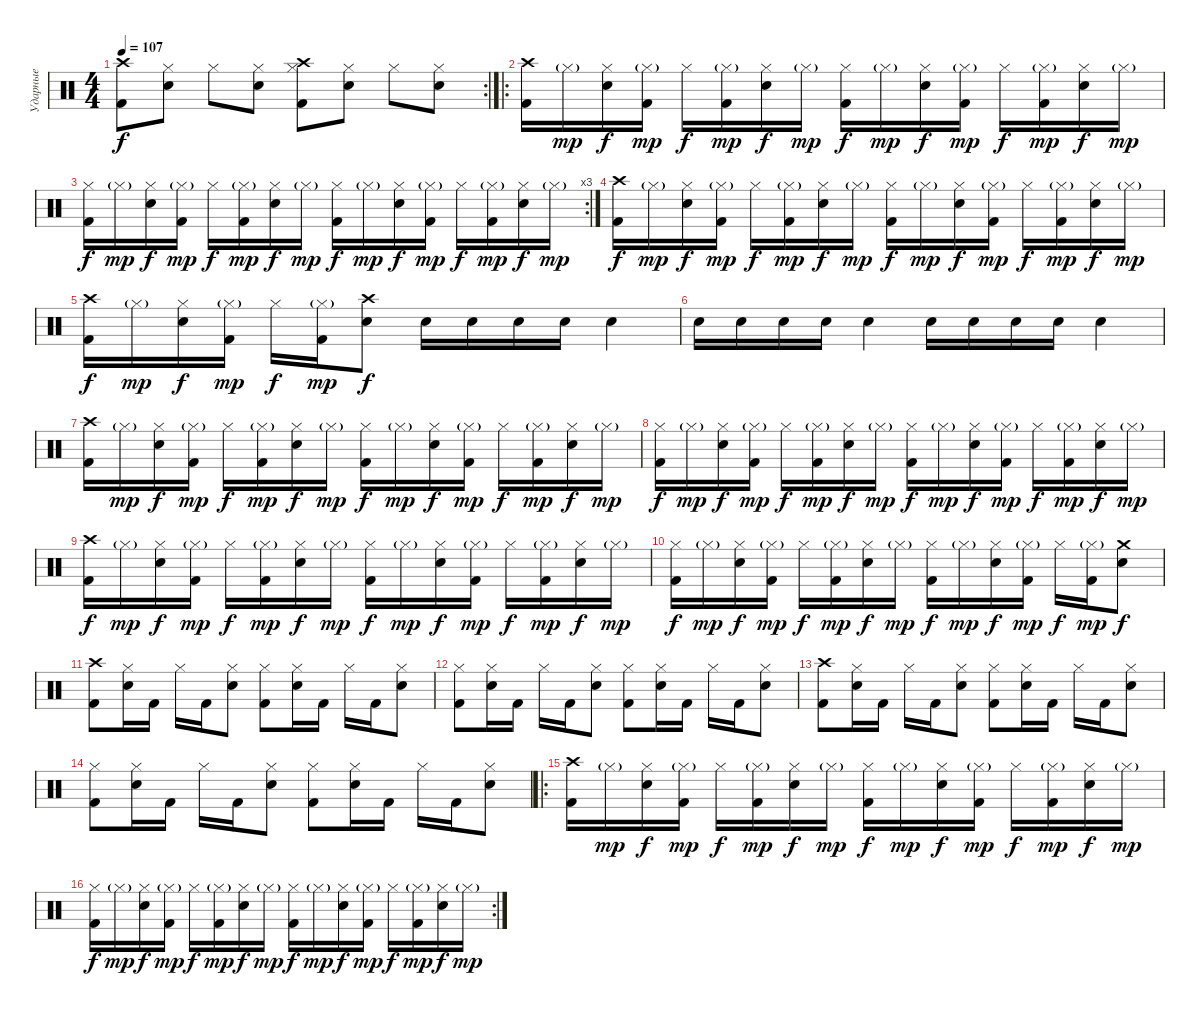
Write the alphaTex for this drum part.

\track ("Ударные" "Ударные") {instrument percussion}
\staff {score}
\articulation defaults
\rc 2
\ts (4 4)
\tempo 107
\clef neutral
\ks c
("Kick (hit) 2" "Crash high (hit)").8{dy f} ("Electric Snare (hit)" "Hi-Hat (closed)").8 "Hi-Hat (closed)".8 ("Electric Snare (hit)" "Hi-Hat (closed)").8 ("Kick (hit) 2" "Hi-Hat (closed)" "Crash high (hit)").8 ("Electric Snare (hit)" "Hi-Hat (closed)").8 "Hi-Hat (closed)".8 ("Electric Snare (hit)" "Hi-Hat (closed)").8 |
\ro
("Kick (hit) 2" "Crash high (hit)").16 "Hi-Hat (closed)"{g}.16{dy mp} ("Electric Snare (hit)" "Hi-Hat (closed)").16{dy f} ("Kick (hit) 2" "Hi-Hat (closed)"{g}).16{dy mp} "Hi-Hat (closed)".16{dy f} ("Kick (hit) 2" "Hi-Hat (closed)"{g}).16{dy mp} ("Electric Snare (hit)" "Hi-Hat (closed)").16{dy f} "Hi-Hat (closed)"{g}.16{dy mp} ("Kick (hit) 2" "Hi-Hat (closed)").16{dy f} "Hi-Hat (closed)"{g}.16{dy mp} ("Electric Snare (hit)" "Hi-Hat (closed)").16{dy f} ("Kick (hit) 2" "Hi-Hat (closed)"{g}).16{dy mp} "Hi-Hat (closed)".16{dy f} ("Kick (hit) 2" "Hi-Hat (closed)"{g}).16{dy mp} ("Electric Snare (hit)" "Hi-Hat (closed)").16{dy f} "Hi-Hat (closed)"{g}.16{dy mp} |
\rc 3
("Kick (hit) 2" "Hi-Hat (closed)").16{dy f} "Hi-Hat (closed)"{g}.16{dy mp} ("Electric Snare (hit)" "Hi-Hat (closed)").16{dy f} ("Kick (hit) 2" "Hi-Hat (closed)"{g}).16{dy mp} "Hi-Hat (closed)".16{dy f} ("Kick (hit) 2" "Hi-Hat (closed)"{g}).16{dy mp} ("Electric Snare (hit)" "Hi-Hat (closed)").16{dy f} "Hi-Hat (closed)"{g}.16{dy mp} ("Kick (hit) 2" "Hi-Hat (closed)").16{dy f} "Hi-Hat (closed)"{g}.16{dy mp} ("Electric Snare (hit)" "Hi-Hat (closed)").16{dy f} ("Kick (hit) 2" "Hi-Hat (closed)"{g}).16{dy mp} "Hi-Hat (closed)".16{dy f} ("Kick (hit) 2" "Hi-Hat (closed)"{g}).16{dy mp} ("Electric Snare (hit)" "Hi-Hat (closed)").16{dy f} "Hi-Hat (closed)"{g}.16{dy mp} |
("Kick (hit) 2" "Crash high (hit)").16{dy f} "Hi-Hat (closed)"{g}.16{dy mp} ("Electric Snare (hit)" "Hi-Hat (closed)").16{dy f} ("Kick (hit) 2" "Hi-Hat (closed)"{g}).16{dy mp} "Hi-Hat (closed)".16{dy f} ("Kick (hit) 2" "Hi-Hat (closed)"{g}).16{dy mp} ("Electric Snare (hit)" "Hi-Hat (closed)").16{dy f} "Hi-Hat (closed)"{g}.16{dy mp} ("Kick (hit) 2" "Hi-Hat (closed)").16{dy f} "Hi-Hat (closed)"{g}.16{dy mp} ("Electric Snare (hit)" "Hi-Hat (closed)").16{dy f} ("Kick (hit) 2" "Hi-Hat (closed)"{g}).16{dy mp} "Hi-Hat (closed)".16{dy f} ("Kick (hit) 2" "Hi-Hat (closed)"{g}).16{dy mp} ("Electric Snare (hit)" "Hi-Hat (closed)").16{dy f} "Hi-Hat (closed)"{g}.16{dy mp} |
("Kick (hit) 2" "Crash high (hit)").16{dy f} "Hi-Hat (closed)"{g}.16{dy mp} ("Electric Snare (hit)" "Hi-Hat (closed)").16{dy f} ("Kick (hit) 2" "Hi-Hat (closed)"{g}).16{dy mp} "Hi-Hat (closed)".16{dy f} ("Kick (hit) 2" "Hi-Hat (closed)"{g}).16{dy mp} ("Electric Snare (hit)" "Crash high (hit)").8{dy f} "Electric Snare (hit)".16 "Electric Snare (hit)".16 "Electric Snare (hit)".16 "Electric Snare (hit)".16 "Electric Snare (hit)".4 |
"Electric Snare (hit)".16 "Electric Snare (hit)".16 "Electric Snare (hit)".16 "Electric Snare (hit)".16 "Electric Snare (hit)".4 "Electric Snare (hit)".16 "Electric Snare (hit)".16 "Electric Snare (hit)".16 "Electric Snare (hit)".16 "Electric Snare (hit)".4 |
("Kick (hit) 2" "Crash high (hit)").16 "Hi-Hat (closed)"{g}.16{dy mp} ("Electric Snare (hit)" "Hi-Hat (closed)").16{dy f} ("Kick (hit) 2" "Hi-Hat (closed)"{g}).16{dy mp} "Hi-Hat (closed)".16{dy f} ("Kick (hit) 2" "Hi-Hat (closed)"{g}).16{dy mp} ("Electric Snare (hit)" "Hi-Hat (closed)").16{dy f} "Hi-Hat (closed)"{g}.16{dy mp} ("Kick (hit) 2" "Hi-Hat (closed)").16{dy f} "Hi-Hat (closed)"{g}.16{dy mp} ("Electric Snare (hit)" "Hi-Hat (closed)").16{dy f} ("Kick (hit) 2" "Hi-Hat (closed)"{g}).16{dy mp} "Hi-Hat (closed)".16{dy f} ("Kick (hit) 2" "Hi-Hat (closed)"{g}).16{dy mp} ("Electric Snare (hit)" "Hi-Hat (closed)").16{dy f} "Hi-Hat (closed)"{g}.16{dy mp} |
("Kick (hit) 2" "Hi-Hat (closed)").16{dy f} "Hi-Hat (closed)"{g}.16{dy mp} ("Electric Snare (hit)" "Hi-Hat (closed)").16{dy f} ("Kick (hit) 2" "Hi-Hat (closed)"{g}).16{dy mp} "Hi-Hat (closed)".16{dy f} ("Kick (hit) 2" "Hi-Hat (closed)"{g}).16{dy mp} ("Electric Snare (hit)" "Hi-Hat (closed)").16{dy f} "Hi-Hat (closed)"{g}.16{dy mp} ("Kick (hit) 2" "Hi-Hat (closed)").16{dy f} "Hi-Hat (closed)"{g}.16{dy mp} ("Electric Snare (hit)" "Hi-Hat (closed)").16{dy f} ("Kick (hit) 2" "Hi-Hat (closed)"{g}).16{dy mp} "Hi-Hat (closed)".16{dy f} ("Kick (hit) 2" "Hi-Hat (closed)"{g}).16{dy mp} ("Electric Snare (hit)" "Hi-Hat (closed)").16{dy f} "Hi-Hat (closed)"{g}.16{dy mp} |
("Kick (hit) 2" "Crash high (hit)").16{dy f} "Hi-Hat (closed)"{g}.16{dy mp} ("Electric Snare (hit)" "Hi-Hat (closed)").16{dy f} ("Kick (hit) 2" "Hi-Hat (closed)"{g}).16{dy mp} "Hi-Hat (closed)".16{dy f} ("Kick (hit) 2" "Hi-Hat (closed)"{g}).16{dy mp} ("Electric Snare (hit)" "Hi-Hat (closed)").16{dy f} "Hi-Hat (closed)"{g}.16{dy mp} ("Kick (hit) 2" "Hi-Hat (closed)").16{dy f} "Hi-Hat (closed)"{g}.16{dy mp} ("Electric Snare (hit)" "Hi-Hat (closed)").16{dy f} ("Kick (hit) 2" "Hi-Hat (closed)"{g}).16{dy mp} "Hi-Hat (closed)".16{dy f} ("Kick (hit) 2" "Hi-Hat (closed)"{g}).16{dy mp} ("Electric Snare (hit)" "Hi-Hat (closed)").16{dy f} "Hi-Hat (closed)"{g}.16{dy mp} |
("Kick (hit) 2" "Hi-Hat (closed)").16{dy f} "Hi-Hat (closed)"{g}.16{dy mp} ("Electric Snare (hit)" "Hi-Hat (closed)").16{dy f} ("Kick (hit) 2" "Hi-Hat (closed)"{g}).16{dy mp} "Hi-Hat (closed)".16{dy f} ("Kick (hit) 2" "Hi-Hat (closed)"{g}).16{dy mp} ("Electric Snare (hit)" "Hi-Hat (closed)").16{dy f} "Hi-Hat (closed)"{g}.16{dy mp} ("Kick (hit) 2" "Hi-Hat (closed)").16{dy f} "Hi-Hat (closed)"{g}.16{dy mp} ("Electric Snare (hit)" "Hi-Hat (closed)").16{dy f} ("Kick (hit) 2" "Hi-Hat (closed)"{g}).16{dy mp} "Hi-Hat (closed)".16{dy f} ("Kick (hit) 2" "Hi-Hat (closed)"{g}).16{dy mp} ("Electric Snare (hit)" "Crash medium (hit)").8{dy f} |
("Kick (hit) 2" "Crash high (hit)").8 ("Electric Snare (hit)" "Hi-Hat (closed)").16 "Kick (hit) 2".16 "Hi-Hat (closed)".16 "Kick (hit) 2".16 ("Electric Snare (hit)" "Hi-Hat (closed)").8 ("Kick (hit) 2" "Hi-Hat (closed)").8 ("Electric Snare (hit)" "Hi-Hat (closed)").16 "Kick (hit) 2".16 "Hi-Hat (closed)".16 "Kick (hit) 2".16 ("Electric Snare (hit)" "Hi-Hat (closed)").8 |
("Kick (hit) 2" "Hi-Hat (closed)").8 ("Electric Snare (hit)" "Hi-Hat (closed)").16 "Kick (hit) 2".16 "Hi-Hat (closed)".16 "Kick (hit) 2".16 ("Electric Snare (hit)" "Hi-Hat (closed)").8 ("Kick (hit) 2" "Hi-Hat (closed)").8 ("Electric Snare (hit)" "Hi-Hat (closed)").16 "Kick (hit) 2".16 "Hi-Hat (closed)".16 "Kick (hit) 2".16 ("Electric Snare (hit)" "Hi-Hat (closed)").8 |
("Kick (hit) 2" "Crash high (hit)").8 ("Electric Snare (hit)" "Hi-Hat (closed)").16 "Kick (hit) 2".16 "Hi-Hat (closed)".16 "Kick (hit) 2".16 ("Electric Snare (hit)" "Hi-Hat (closed)").8 ("Kick (hit) 2" "Hi-Hat (closed)").8 ("Electric Snare (hit)" "Hi-Hat (closed)").16 "Kick (hit) 2".16 "Hi-Hat (closed)".16 "Kick (hit) 2".16 ("Electric Snare (hit)" "Hi-Hat (closed)").8 |
("Kick (hit) 2" "Hi-Hat (closed)").8 ("Electric Snare (hit)" "Hi-Hat (closed)").16 "Kick (hit) 2".16 "Hi-Hat (closed)".16 "Kick (hit) 2".16 ("Electric Snare (hit)" "Hi-Hat (closed)").8 ("Kick (hit) 2" "Hi-Hat (closed)").8 ("Electric Snare (hit)" "Hi-Hat (closed)").16 "Kick (hit) 2".16 "Hi-Hat (closed)".16 "Kick (hit) 2".16 ("Electric Snare (hit)" "Hi-Hat (closed)").8 |
\ro
("Kick (hit) 2" "Crash high (hit)").16 "Hi-Hat (closed)"{g}.16{dy mp} ("Electric Snare (hit)" "Hi-Hat (closed)").16{dy f} ("Kick (hit) 2" "Hi-Hat (closed)"{g}).16{dy mp} "Hi-Hat (closed)".16{dy f} ("Kick (hit) 2" "Hi-Hat (closed)"{g}).16{dy mp} ("Electric Snare (hit)" "Hi-Hat (closed)").16{dy f} "Hi-Hat (closed)"{g}.16{dy mp} ("Kick (hit) 2" "Hi-Hat (closed)").16{dy f} "Hi-Hat (closed)"{g}.16{dy mp} ("Electric Snare (hit)" "Hi-Hat (closed)").16{dy f} ("Kick (hit) 2" "Hi-Hat (closed)"{g}).16{dy mp} "Hi-Hat (closed)".16{dy f} ("Kick (hit) 2" "Hi-Hat (closed)"{g}).16{dy mp} ("Electric Snare (hit)" "Hi-Hat (closed)").16{dy f} "Hi-Hat (closed)"{g}.16{dy mp} |
\rc 2
("Kick (hit) 2" "Hi-Hat (closed)").16{dy f} "Hi-Hat (closed)"{g}.16{dy mp} ("Electric Snare (hit)" "Hi-Hat (closed)").16{dy f} ("Kick (hit) 2" "Hi-Hat (closed)"{g}).16{dy mp} "Hi-Hat (closed)".16{dy f} ("Kick (hit) 2" "Hi-Hat (closed)"{g}).16{dy mp} ("Electric Snare (hit)" "Hi-Hat (closed)").16{dy f} "Hi-Hat (closed)"{g}.16{dy mp} ("Kick (hit) 2" "Hi-Hat (closed)").16{dy f} "Hi-Hat (closed)"{g}.16{dy mp} ("Electric Snare (hit)" "Hi-Hat (closed)").16{dy f} ("Kick (hit) 2" "Hi-Hat (closed)"{g}).16{dy mp} "Hi-Hat (closed)".16{dy f} ("Kick (hit) 2" "Hi-Hat (closed)"{g}).16{dy mp} ("Electric Snare (hit)" "Hi-Hat (closed)").16{dy f} "Hi-Hat (closed)"{g}.16{dy mp}
